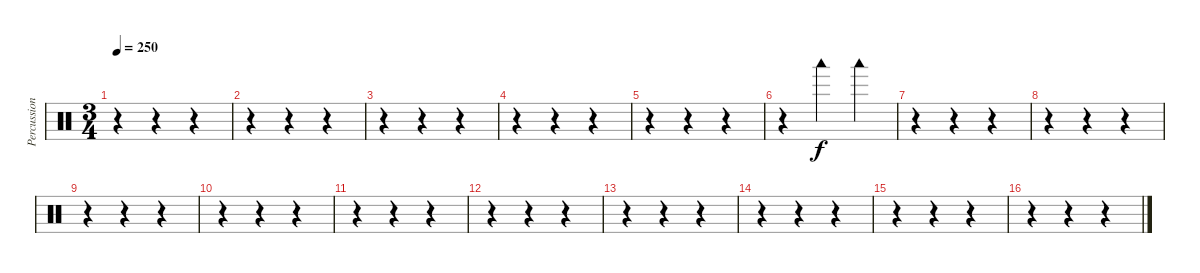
\track ("Percussions" "Percussion") {instrument percussion}
\staff {score}
\articulation defaults
\ts (3 4)
\tempo 250
\clef neutral
\ks c
r.4{dy f} r.4 r.4 |
r.4 r.4 r.4 |
r.4 r.4 r.4 |
r.4 r.4 r.4 |
r.4 r.4 r.4 |
r.4 "Woodblock low (hit)".4 "Woodblock low (hit)".4 |
r.4 r.4 r.4 |
r.4 r.4 r.4 |
r.4 r.4 r.4 |
r.4 r.4 r.4 |
r.4 r.4 r.4 |
r.4 r.4 r.4 |
r.4 r.4 r.4 |
r.4 r.4 r.4 |
r.4 r.4 r.4 |
r.4 r.4 r.4
